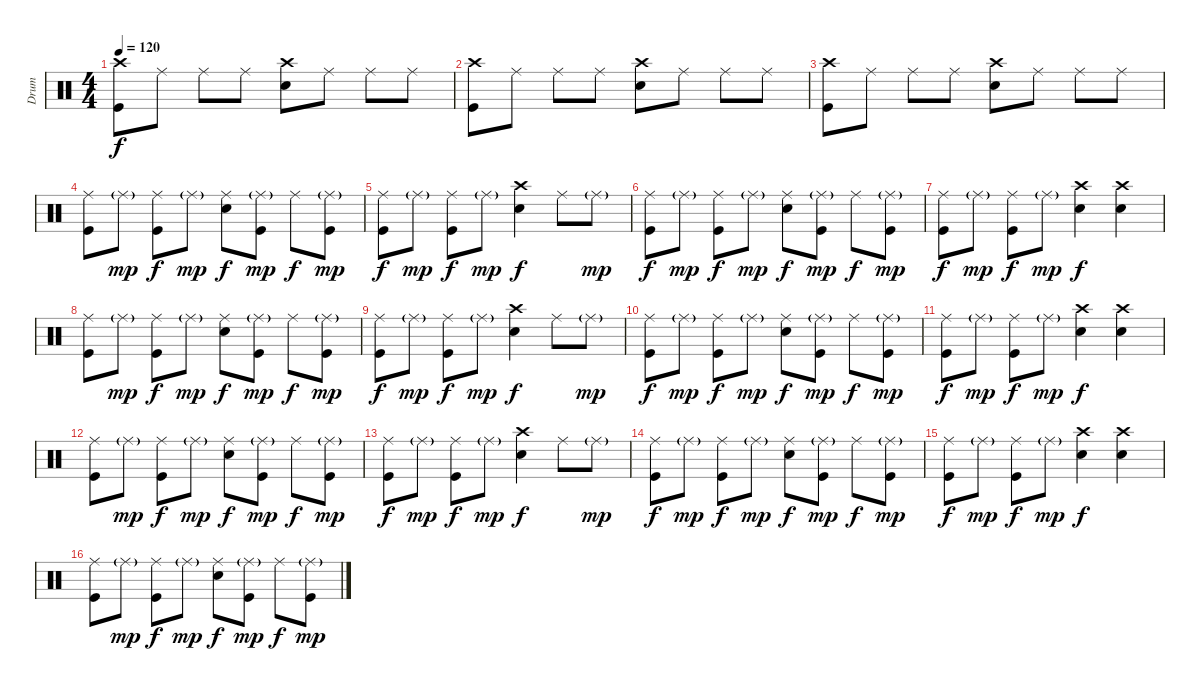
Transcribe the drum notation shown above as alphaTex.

\track ("Drum" "Drum") {instrument percussion}
\staff {score}
\articulation defaults
\ts (4 4)
\tempo 120
\clef neutral
\ks c
("Crash high (hit)" "Kick (hit)").8{dy f} "Ride (middle)".8 "Ride (middle)".8 "Ride (middle)".8 ("Crash high (hit)" "Snare (hit) 2").8 "Ride (middle)".8 "Ride (middle)".8 "Ride (middle)".8 |
("Crash high (hit)" "Kick (hit)").8 "Ride (middle)".8 "Ride (middle)".8 "Ride (middle)".8 ("Crash high (hit)" "Snare (hit) 2").8 "Ride (middle)".8 "Ride (middle)".8 "Ride (middle)".8 |
("Crash high (hit)" "Kick (hit)").8 "Ride (middle)".8 "Ride (middle)".8 "Ride (middle)".8 ("Crash high (hit)" "Snare (hit) 2").8 "Ride (middle)".8 "Ride (middle)".8 "Ride (middle)".8 |
("Ride (middle)" "Kick (hit)").8 "Ride (middle)"{g}.8{dy mp} ("Ride (middle)" "Kick (hit)").8{dy f} "Ride (middle)"{g}.8{dy mp} ("Ride (middle)" "Snare (hit) 2").8{dy f} ("Ride (middle)"{g} "Kick (hit)").8{dy mp} "Ride (middle)".8{dy f} ("Ride (middle)"{g} "Kick (hit)").8{dy mp} |
("Ride (middle)" "Kick (hit)").8{dy f} "Ride (middle)"{g}.8{dy mp} ("Ride (middle)" "Kick (hit)").8{dy f} "Ride (middle)"{g}.8{dy mp} ("Crash high (hit)" "Snare (hit) 2").4{dy f} "Ride (middle)".8 "Ride (middle)"{g}.8{dy mp} |
("Ride (middle)" "Kick (hit)").8{dy f} "Ride (middle)"{g}.8{dy mp} ("Ride (middle)" "Kick (hit)").8{dy f} "Ride (middle)"{g}.8{dy mp} ("Ride (middle)" "Snare (hit) 2").8{dy f} ("Ride (middle)"{g} "Kick (hit)").8{dy mp} "Ride (middle)".8{dy f} ("Ride (middle)"{g} "Kick (hit)").8{dy mp} |
("Ride (middle)" "Kick (hit)").8{dy f} "Ride (middle)"{g}.8{dy mp} ("Ride (middle)" "Kick (hit)").8{dy f} "Ride (middle)"{g}.8{dy mp} ("Crash high (hit)" "Snare (hit) 2").4{dy f} ("Crash high (hit)" "Snare (hit) 2").4 |
("Ride (middle)" "Kick (hit)").8 "Ride (middle)"{g}.8{dy mp} ("Ride (middle)" "Kick (hit)").8{dy f} "Ride (middle)"{g}.8{dy mp} ("Ride (middle)" "Snare (hit) 2").8{dy f} ("Ride (middle)"{g} "Kick (hit)").8{dy mp} "Ride (middle)".8{dy f} ("Ride (middle)"{g} "Kick (hit)").8{dy mp} |
("Ride (middle)" "Kick (hit)").8{dy f} "Ride (middle)"{g}.8{dy mp} ("Ride (middle)" "Kick (hit)").8{dy f} "Ride (middle)"{g}.8{dy mp} ("Crash high (hit)" "Snare (hit) 2").4{dy f} "Ride (middle)".8 "Ride (middle)"{g}.8{dy mp} |
("Ride (middle)" "Kick (hit)").8{dy f} "Ride (middle)"{g}.8{dy mp} ("Ride (middle)" "Kick (hit)").8{dy f} "Ride (middle)"{g}.8{dy mp} ("Ride (middle)" "Snare (hit) 2").8{dy f} ("Ride (middle)"{g} "Kick (hit)").8{dy mp} "Ride (middle)".8{dy f} ("Ride (middle)"{g} "Kick (hit)").8{dy mp} |
("Ride (middle)" "Kick (hit)").8{dy f} "Ride (middle)"{g}.8{dy mp} ("Ride (middle)" "Kick (hit)").8{dy f} "Ride (middle)"{g}.8{dy mp} ("Crash high (hit)" "Snare (hit) 2").4{dy f} ("Crash high (hit)" "Snare (hit) 2").4 |
("Ride (middle)" "Kick (hit)").8 "Ride (middle)"{g}.8{dy mp} ("Ride (middle)" "Kick (hit)").8{dy f} "Ride (middle)"{g}.8{dy mp} ("Ride (middle)" "Snare (hit) 2").8{dy f} ("Ride (middle)"{g} "Kick (hit)").8{dy mp} "Ride (middle)".8{dy f} ("Ride (middle)"{g} "Kick (hit)").8{dy mp} |
("Ride (middle)" "Kick (hit)").8{dy f} "Ride (middle)"{g}.8{dy mp} ("Ride (middle)" "Kick (hit)").8{dy f} "Ride (middle)"{g}.8{dy mp} ("Crash high (hit)" "Snare (hit) 2").4{dy f} "Ride (middle)".8 "Ride (middle)"{g}.8{dy mp} |
("Ride (middle)" "Kick (hit)").8{dy f} "Ride (middle)"{g}.8{dy mp} ("Ride (middle)" "Kick (hit)").8{dy f} "Ride (middle)"{g}.8{dy mp} ("Ride (middle)" "Snare (hit) 2").8{dy f} ("Ride (middle)"{g} "Kick (hit)").8{dy mp} "Ride (middle)".8{dy f} ("Ride (middle)"{g} "Kick (hit)").8{dy mp} |
("Ride (middle)" "Kick (hit)").8{dy f} "Ride (middle)"{g}.8{dy mp} ("Ride (middle)" "Kick (hit)").8{dy f} "Ride (middle)"{g}.8{dy mp} ("Crash high (hit)" "Snare (hit) 2").4{dy f} ("Crash high (hit)" "Snare (hit) 2").4 |
("Ride (middle)" "Kick (hit)").8 "Ride (middle)"{g}.8{dy mp} ("Ride (middle)" "Kick (hit)").8{dy f} "Ride (middle)"{g}.8{dy mp} ("Ride (middle)" "Snare (hit) 2").8{dy f} ("Ride (middle)"{g} "Kick (hit)").8{dy mp} "Ride (middle)".8{dy f} ("Ride (middle)"{g} "Kick (hit)").8{dy mp}
